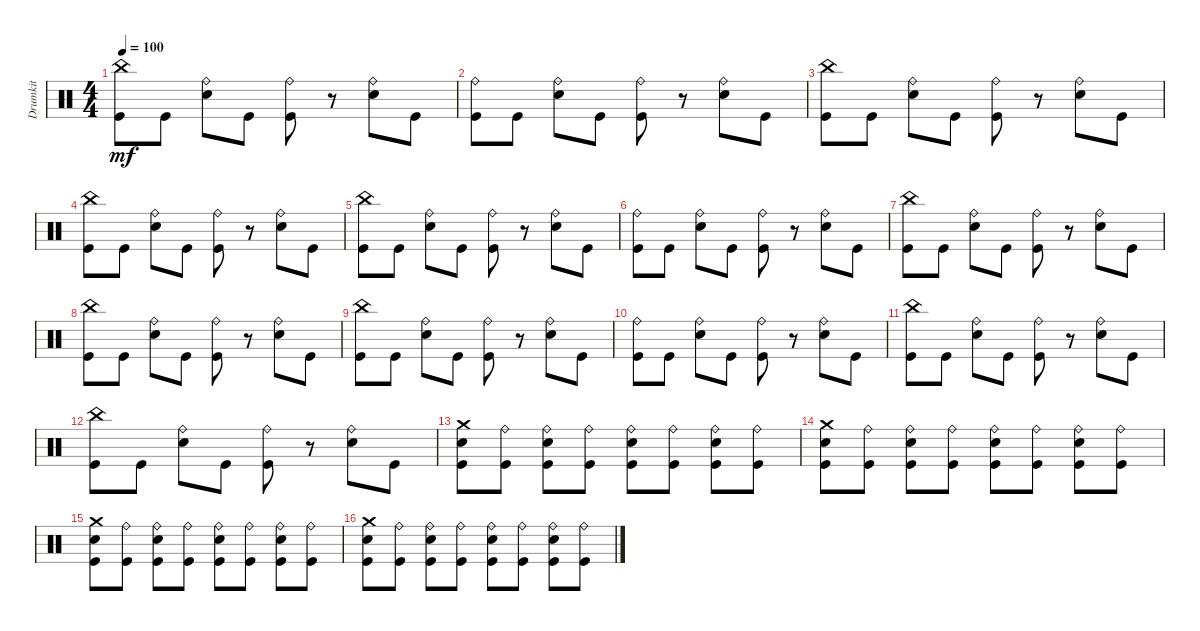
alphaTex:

\track ("Drumkit" "Drumkit") {instrument percussion}
\staff {score}
\articulation defaults
\ts (4 4)
\tempo 100
\clef neutral
\ks c
("Kick (hit)" "China (hit)").8{dy mf} "Kick (hit)".8 ("Snare (hit) 2" "Ride (bell)").8 "Kick (hit)".8 ("Kick (hit)" "Ride (bell)").8 r.8 ("Snare (hit) 2" "Ride (bell)").8 "Kick (hit)".8 |
("Kick (hit)" "Ride (bell)").8 "Kick (hit)".8 ("Snare (hit) 2" "Ride (bell)").8 "Kick (hit)".8 ("Kick (hit)" "Ride (bell)").8 r.8 ("Snare (hit) 2" "Ride (bell)").8 "Kick (hit)".8 |
("Kick (hit)" "China (hit)").8 "Kick (hit)".8 ("Snare (hit) 2" "Ride (bell)").8 "Kick (hit)".8 ("Kick (hit)" "Ride (bell)").8 r.8 ("Snare (hit) 2" "Ride (bell)").8 "Kick (hit)".8 |
("Kick (hit)" "China (hit)").8 "Kick (hit)".8 ("Snare (hit) 2" "Ride (bell)").8 "Kick (hit)".8 ("Kick (hit)" "Ride (bell)").8 r.8 ("Snare (hit) 2" "Ride (bell)").8 "Kick (hit)".8 |
("Kick (hit)" "China (hit)").8 "Kick (hit)".8 ("Snare (hit) 2" "Ride (bell)").8 "Kick (hit)".8 ("Kick (hit)" "Ride (bell)").8 r.8 ("Snare (hit) 2" "Ride (bell)").8 "Kick (hit)".8 |
("Kick (hit)" "Ride (bell)").8 "Kick (hit)".8 ("Snare (hit) 2" "Ride (bell)").8 "Kick (hit)".8 ("Kick (hit)" "Ride (bell)").8 r.8 ("Snare (hit) 2" "Ride (bell)").8 "Kick (hit)".8 |
("Kick (hit)" "China (hit)").8 "Kick (hit)".8 ("Snare (hit) 2" "Ride (bell)").8 "Kick (hit)".8 ("Kick (hit)" "Ride (bell)").8 r.8 ("Snare (hit) 2" "Ride (bell)").8 "Kick (hit)".8 |
("Kick (hit)" "China (hit)").8 "Kick (hit)".8 ("Snare (hit) 2" "Ride (bell)").8 "Kick (hit)".8 ("Kick (hit)" "Ride (bell)").8 r.8 ("Snare (hit) 2" "Ride (bell)").8 "Kick (hit)".8 |
("Kick (hit)" "China (hit)").8 "Kick (hit)".8 ("Snare (hit) 2" "Ride (bell)").8 "Kick (hit)".8 ("Kick (hit)" "Ride (bell)").8 r.8 ("Snare (hit) 2" "Ride (bell)").8 "Kick (hit)".8 |
("Kick (hit)" "Ride (bell)").8 "Kick (hit)".8 ("Snare (hit) 2" "Ride (bell)").8 "Kick (hit)".8 ("Kick (hit)" "Ride (bell)").8 r.8 ("Snare (hit) 2" "Ride (bell)").8 "Kick (hit)".8 |
("Kick (hit)" "China (hit)").8 "Kick (hit)".8 ("Snare (hit) 2" "Ride (bell)").8 "Kick (hit)".8 ("Kick (hit)" "Ride (bell)").8 r.8 ("Snare (hit) 2" "Ride (bell)").8 "Kick (hit)".8 |
("Kick (hit)" "China (hit)").8 "Kick (hit)".8 ("Snare (hit) 2" "Ride (bell)").8 "Kick (hit)".8 ("Kick (hit)" "Ride (bell)").8 r.8 ("Snare (hit) 2" "Ride (bell)").8 "Kick (hit)".8 |
("Snare (hit) 2" "Kick (hit)" "Crash medium (hit)").8 ("Kick (hit)" "Ride (bell)").8 ("Snare (hit) 2" "Kick (hit)" "Ride (bell)").8 ("Kick (hit)" "Ride (bell)").8 ("Kick (hit)" "Snare (hit) 2" "Ride (bell)").8 ("Kick (hit)" "Ride (bell)").8 ("Kick (hit)" "Snare (hit) 2" "Ride (bell)").8 ("Kick (hit)" "Ride (bell)").8 |
("Snare (hit) 2" "Kick (hit)" "Crash medium (hit)").8 ("Kick (hit)" "Ride (bell)").8 ("Snare (hit) 2" "Kick (hit)" "Ride (bell)").8 ("Kick (hit)" "Ride (bell)").8 ("Kick (hit)" "Snare (hit) 2" "Ride (bell)").8 ("Kick (hit)" "Ride (bell)").8 ("Kick (hit)" "Snare (hit) 2" "Ride (bell)").8 ("Kick (hit)" "Ride (bell)").8 |
("Snare (hit) 2" "Kick (hit)" "Crash medium (hit)").8 ("Kick (hit)" "Ride (bell)").8 ("Snare (hit) 2" "Kick (hit)" "Ride (bell)").8 ("Kick (hit)" "Ride (bell)").8 ("Kick (hit)" "Snare (hit) 2" "Ride (bell)").8 ("Kick (hit)" "Ride (bell)").8 ("Kick (hit)" "Snare (hit) 2" "Ride (bell)").8 ("Kick (hit)" "Ride (bell)").8 |
("Snare (hit) 2" "Kick (hit)" "Crash medium (hit)").8 ("Kick (hit)" "Ride (bell)").8 ("Snare (hit) 2" "Kick (hit)" "Ride (bell)").8 ("Kick (hit)" "Ride (bell)").8 ("Kick (hit)" "Snare (hit) 2" "Ride (bell)").8 ("Kick (hit)" "Ride (bell)").8 ("Kick (hit)" "Snare (hit) 2" "Ride (bell)").8 ("Kick (hit)" "Ride (bell)").8
